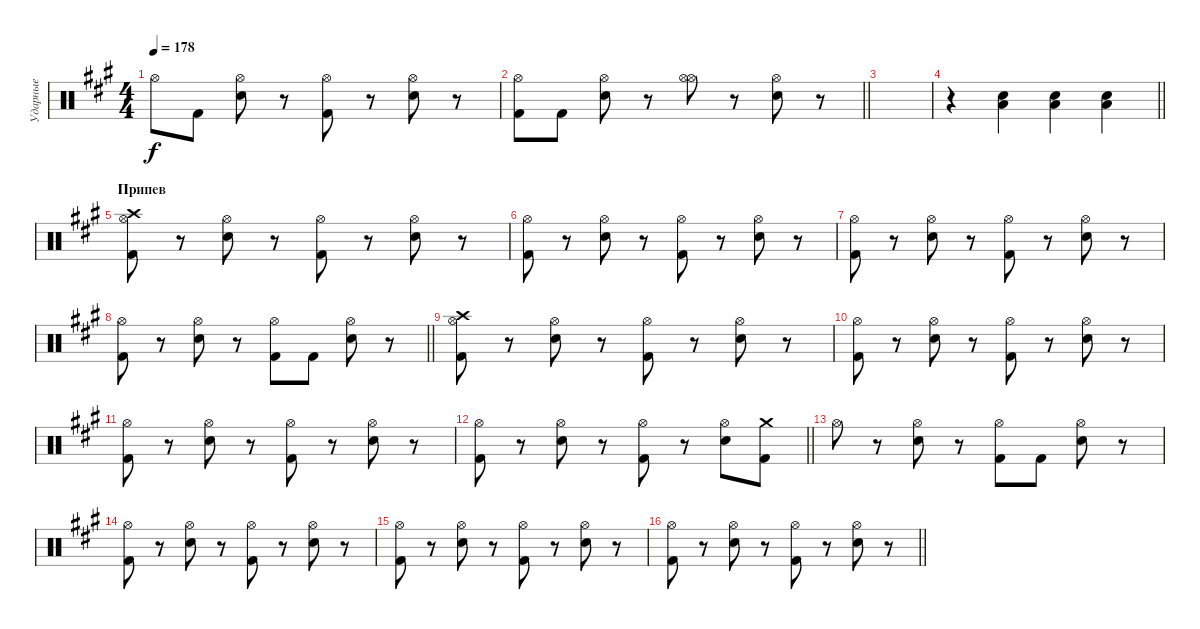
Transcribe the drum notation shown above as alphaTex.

\track ("Ударные" "Ударные") {instrument percussion}
\staff {score}
\articulation defaults
\ts (4 4)
\tempo 178
\clef neutral
\ks f#minor "Hi-Hat (open)".8{dy f} "Kick (hit) 2".8
("Electric Snare (hit)" "Hi-Hat (open)").8 r.8 ("Kick (hit) 2" "Hi-Hat (open)").8 r.8 ("Electric Snare (hit)" "Hi-Hat (open)").8 r.8 |
\barLineRight lightlight
("Kick (hit) 2" "Hi-Hat (open)").8 "Kick (hit) 2".8 ("Electric Snare (hit)" "Hi-Hat (open)").8 r.8 ("Hi-Hat (open)" "Hi-Hat (open)").8 r.8 ("Electric Snare (hit)" "Hi-Hat (open)").8 r.8 |
\section ("" "")
|
\barLineRight lightlight
r.4 ("Low Tom (hit)" "Electric Snare (hit)").4 ("Low Tom (hit)" "Electric Snare (hit)").4 ("Low Tom (hit)" "Electric Snare (hit)").4 |
\section ("" "Припев")
("Crash high (hit)" "Kick (hit) 2" "Hi-Hat (open)").8 r.8 ("Electric Snare (hit)" "Hi-Hat (open)").8 r.8 ("Kick (hit) 2" "Hi-Hat (open)").8 r.8 ("Electric Snare (hit)" "Hi-Hat (open)").8 r.8 |
("Kick (hit) 2" "Hi-Hat (open)").8 r.8 ("Electric Snare (hit)" "Hi-Hat (open)").8 r.8 ("Kick (hit) 2" "Hi-Hat (open)").8 r.8 ("Electric Snare (hit)" "Hi-Hat (open)").8 r.8 |
("Kick (hit) 2" "Hi-Hat (open)").8 r.8 ("Electric Snare (hit)" "Hi-Hat (open)").8 r.8 ("Kick (hit) 2" "Hi-Hat (open)").8 r.8 ("Electric Snare (hit)" "Hi-Hat (open)").8 r.8 |
\barLineRight lightlight
("Kick (hit) 2" "Hi-Hat (open)").8 r.8 ("Electric Snare (hit)" "Hi-Hat (open)").8 r.8 ("Kick (hit) 2" "Hi-Hat (open)").8 "Kick (hit) 2".8 ("Electric Snare (hit)" "Hi-Hat (open)").8 r.8 |
("Crash high (hit)" "Kick (hit) 2" "Hi-Hat (open)").8 r.8 ("Electric Snare (hit)" "Hi-Hat (open)").8 r.8 ("Kick (hit) 2" "Hi-Hat (open)").8 r.8 ("Electric Snare (hit)" "Hi-Hat (open)").8 r.8 |
("Kick (hit) 2" "Hi-Hat (open)").8 r.8 ("Electric Snare (hit)" "Hi-Hat (open)").8 r.8 ("Kick (hit) 2" "Hi-Hat (open)").8 r.8 ("Electric Snare (hit)" "Hi-Hat (open)").8 r.8 |
("Kick (hit) 2" "Hi-Hat (open)").8 r.8 ("Electric Snare (hit)" "Hi-Hat (open)").8 r.8 ("Kick (hit) 2" "Hi-Hat (open)").8 r.8 ("Electric Snare (hit)" "Hi-Hat (open)").8 r.8 |
\barLineRight lightlight
("Kick (hit) 2" "Hi-Hat (open)").8 r.8 ("Electric Snare (hit)" "Hi-Hat (open)").8 r.8 ("Kick (hit) 2" "Hi-Hat (open)").8 r.8 ("Electric Snare (hit)" "Hi-Hat (open)").8 ("Crash medium (hit)" "Kick (hit) 2").8 |
"Hi-Hat (open)".8 r.8 ("Electric Snare (hit)" "Hi-Hat (open)").8 r.8 ("Kick (hit) 2" "Hi-Hat (open)").8 "Kick (hit) 2".8 ("Electric Snare (hit)" "Hi-Hat (open)").8 r.8 |
("Kick (hit) 2" "Hi-Hat (open)").8 r.8 ("Electric Snare (hit)" "Hi-Hat (open)").8 r.8 ("Kick (hit) 2" "Hi-Hat (open)").8 r.8 ("Electric Snare (hit)" "Hi-Hat (open)").8 r.8 |
("Kick (hit) 2" "Hi-Hat (open)").8 r.8 ("Electric Snare (hit)" "Hi-Hat (open)").8 r.8 ("Kick (hit) 2" "Hi-Hat (open)").8 r.8 ("Electric Snare (hit)" "Hi-Hat (open)").8 r.8 |
\barLineRight lightlight
("Kick (hit) 2" "Hi-Hat (open)").8 r.8 ("Electric Snare (hit)" "Hi-Hat (open)").8 r.8 ("Kick (hit) 2" "Hi-Hat (open)").8 r.8 ("Electric Snare (hit)" "Hi-Hat (open)").8 r.8
